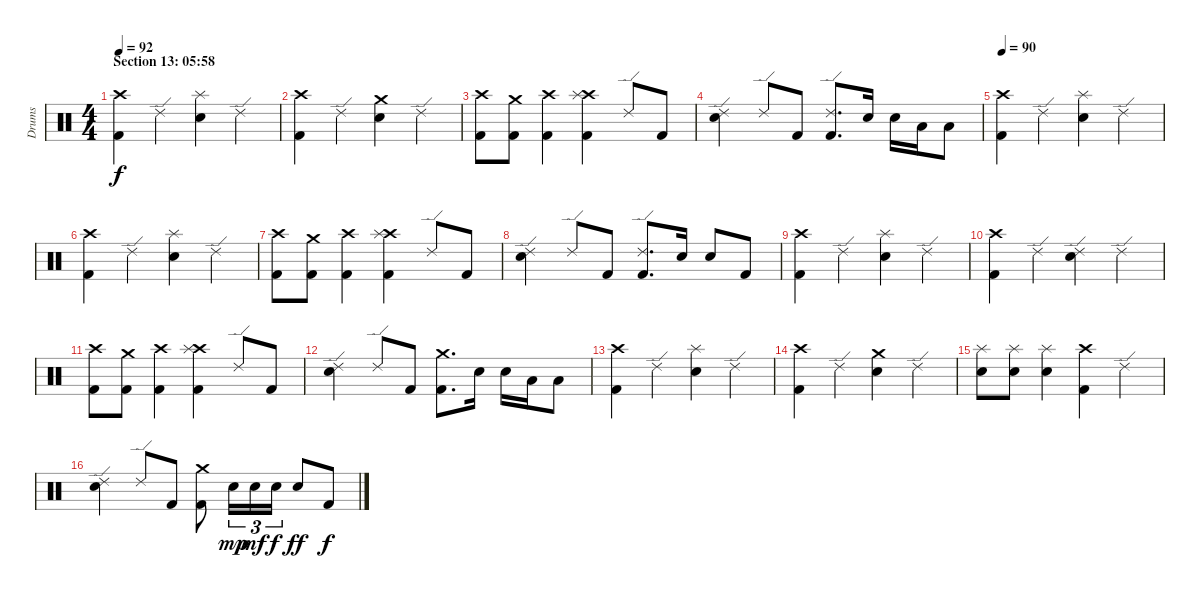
\track ("Drums" "Drums") {instrument percussion}
\staff {score}
\articulation defaults
\ts (4 4)
\section ("" "Section 13: 05:58")
\tempo 92
\clef neutral
\ks c
("Crash high (hit)" "Kick (hit) 2").4{dy f} "Ride (edge) 2".4 ("Splash (hit)" "Electric Snare (hit)").4 "Ride (edge) 2".4 |
("Crash high (hit)" "Kick (hit) 2").4 "Ride (edge) 2".4 ("Crash medium (hit)" "Electric Snare (hit)").4 "Ride (edge) 2".4 |
("Crash high (hit)" "Kick (hit) 2").8 ("Crash medium (hit)" "Kick (hit) 2").8 ("Crash high (hit)" "Kick (hit) 2").4 ("Crash high (hit)" "Splash (hit)" "Kick (hit) 2").4 "Ride (edge) 2".8 "Kick (hit) 2".8 |
("Ride (edge) 2" "Electric Snare (hit)").4 "Ride (edge) 2".8 "Kick (hit) 2".8 ("Ride (edge) 2" "Kick (hit) 2").8{d} "Electric Snare (hit)".16 "Electric Snare (hit)".16 "Low Tom (hit)".16 "Low Tom (hit)".8 |
\tempo 90
("Crash high (hit)" "Kick (hit) 2").4 "Ride (edge) 2".4 ("Splash (hit)" "Electric Snare (hit)").4 "Ride (edge) 2".4 |
("Crash high (hit)" "Kick (hit) 2").4 "Ride (edge) 2".4 ("Splash (hit)" "Electric Snare (hit)").4 "Ride (edge) 2".4 |
("Crash high (hit)" "Kick (hit) 2").8 ("Crash medium (hit)" "Kick (hit) 2").8 ("Crash high (hit)" "Kick (hit) 2").4 ("Crash high (hit)" "Splash (hit)" "Kick (hit) 2").4 "Ride (edge) 2".8 "Kick (hit) 2".8 |
("Ride (edge) 2" "Electric Snare (hit)").4 "Ride (edge) 2".8 "Kick (hit) 2".8 ("Ride (edge) 2" "Kick (hit) 2").8{d} "Electric Snare (hit)".16 "Electric Snare (hit)".8 "Kick (hit) 2".8 |
("Crash high (hit)" "Kick (hit) 2").4 "Ride (edge) 2".4 ("Splash (hit)" "Electric Snare (hit)").4 "Ride (edge) 2".4 |
("Crash high (hit)" "Kick (hit) 2").4 "Ride (edge) 2".4 ("Ride (edge) 2" "Electric Snare (hit)").4 "Ride (edge) 2".4 |
("Crash high (hit)" "Kick (hit) 2").8 ("Crash medium (hit)" "Kick (hit) 2").8 ("Crash high (hit)" "Kick (hit) 2").4 ("Crash high (hit)" "Splash (hit)" "Kick (hit) 2").4 "Ride (edge) 2".8 "Kick (hit) 2".8 |
("Ride (edge) 2" "Electric Snare (hit)").4 "Ride (edge) 2".8 "Kick (hit) 2".8 ("Crash medium (hit)" "Kick (hit) 2").8{d} "Electric Snare (hit)".16 "Electric Snare (hit)".16 "Low Tom (hit)".16 "Low Tom (hit)".8 |
("Crash high (hit)" "Kick (hit) 2").4 "Ride (edge) 2".4 ("Splash (hit)" "Electric Snare (hit)").4 "Ride (edge) 2".4 |
("Crash high (hit)" "Kick (hit) 2").4 "Ride (edge) 2".4 ("Crash medium (hit)" "Electric Snare (hit)").4 "Ride (edge) 2".4 |
("Splash (hit)" "Electric Snare (hit)").8 ("Splash (hit)" "Electric Snare (hit)").8 ("Splash (hit)" "Electric Snare (hit)").4 ("Crash high (hit)" "Kick (hit) 2").4 "Ride (edge) 2".4 |
("Ride (edge) 2" "Electric Snare (hit)").4 "Ride (edge) 2".8 "Kick (hit) 2".8 ("Crash medium (hit)" "Kick (hit) 2").8 "Electric Snare (hit)".16{tu (3 2) dy mp} "Electric Snare (hit)".16{tu (3 2) dy mf} "Electric Snare (hit)".16{tu (3 2) dy f} "Electric Snare (hit)".8{dy ff} "Kick (hit) 2".8{dy f}
